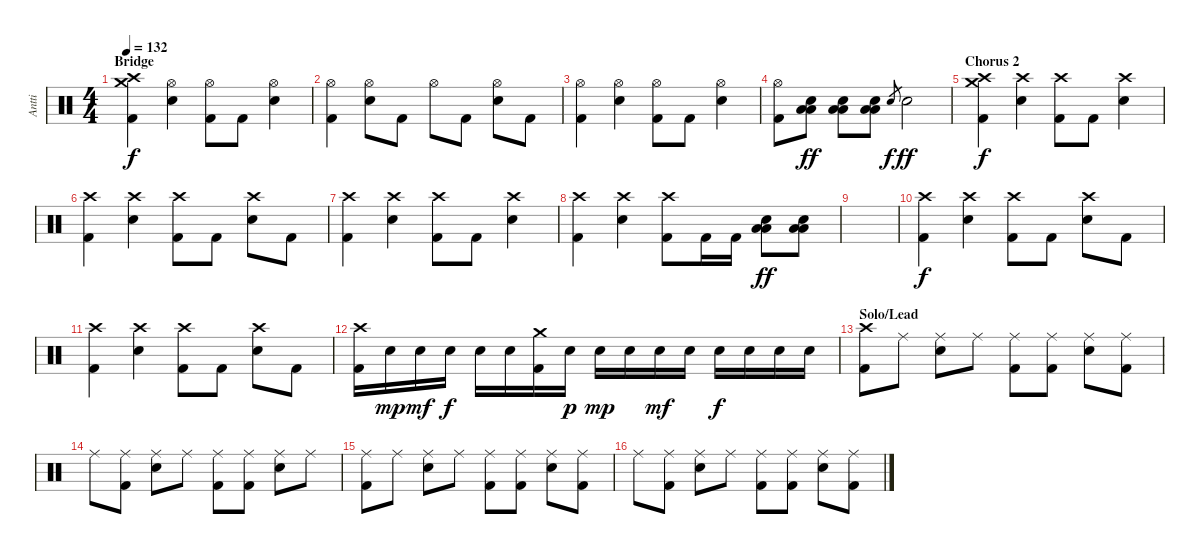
\track ("Antti" "Antti") {instrument percussion}
\staff {score}
\articulation defaults
\ts (4 4)
\section ("" "Bridge")
\tempo 132
\clef neutral
\ks c
("Crash medium (hit)" "Crash high (hit)" "Kick (hit) 2").4{dy f} ("Hi-Hat (open)" "Electric Snare (hit)").4 ("Hi-Hat (open)" "Kick (hit) 2").8 "Kick (hit) 2".8 ("Hi-Hat (open)" "Electric Snare (hit)").4 |
("Hi-Hat (open)" "Kick (hit) 2").4 ("Hi-Hat (open)" "Electric Snare (hit)").8 "Kick (hit) 2".8 "Hi-Hat (open)".8 "Kick (hit) 2".8 ("Hi-Hat (open)" "Electric Snare (hit)").8 "Kick (hit) 2".8 |
("Hi-Hat (open)" "Kick (hit) 2").4 ("Hi-Hat (open)" "Electric Snare (hit)").4 ("Hi-Hat (open)" "Kick (hit) 2").8 "Kick (hit) 2".8 ("Hi-Hat (open)" "Electric Snare (hit)").4 |
("Hi-Hat (open)" "Kick (hit) 2").8 ("Low Tom (hit)" "Low Floor Tom (hit)" "Electric Snare (hit)").8{dy ff} ("Low Tom (hit)" "Low Floor Tom (hit)" "Electric Snare (hit)").8 ("Low Tom (hit)" "Low Floor Tom (hit)" "Electric Snare (hit)").8 "Electric Snare (hit)"{h}.8{gr dy f} "Electric Snare (hit)".2{dy ff} |
\section ("" "Chorus 2")
("Crash medium (hit)" "Crash high (hit)" "Kick (hit) 2").4{dy f} ("Crash high (hit)" "Electric Snare (hit)").4 ("Crash high (hit)" "Kick (hit) 2").8 "Kick (hit) 2".8 ("Crash high (hit)" "Electric Snare (hit)").4 |
("Crash high (hit)" "Kick (hit) 2").4 ("Crash high (hit)" "Electric Snare (hit)").4 ("Crash high (hit)" "Kick (hit) 2").8 "Kick (hit) 2".8 ("Crash high (hit)" "Electric Snare (hit)").8 "Kick (hit) 2".8 |
("Crash high (hit)" "Kick (hit) 2").4 ("Crash high (hit)" "Electric Snare (hit)").4 ("Crash high (hit)" "Kick (hit) 2").8 "Kick (hit) 2".8 ("Crash high (hit)" "Electric Snare (hit)").4 |
("Crash high (hit)" "Kick (hit) 2").4 ("Crash high (hit)" "Electric Snare (hit)").4 ("Crash high (hit)" "Kick (hit) 2").8 "Kick (hit) 2".16 "Kick (hit) 2".16 ("Low Tom (hit)" "Low Floor Tom (hit)" "Electric Snare (hit)").8{dy ff} ("Low Tom (hit)" "Low Floor Tom (hit)" "Electric Snare (hit)").8 |
|
("Crash high (hit)" "Kick (hit) 2").4{dy f} ("Crash high (hit)" "Electric Snare (hit)").4 ("Crash high (hit)" "Kick (hit) 2").8 "Kick (hit) 2".8 ("Crash high (hit)" "Electric Snare (hit)").8 "Kick (hit) 2".8 |
("Crash high (hit)" "Kick (hit) 2").4 ("Crash high (hit)" "Electric Snare (hit)").4 ("Crash high (hit)" "Kick (hit) 2").8 "Kick (hit) 2".8 ("Crash high (hit)" "Electric Snare (hit)").8 "Kick (hit) 2".8 |
("Crash high (hit)" "Kick (hit) 2").16 "Electric Snare (hit)".16{dy mp} "Electric Snare (hit)".16{dy mf} "Electric Snare (hit)".16{dy f} "Electric Snare (hit)".16 "Electric Snare (hit)".16 ("Crash medium (hit)" "Kick (hit) 2").16 "Electric Snare (hit)".16{dy p} "Electric Snare (hit)".16{dy mp} "Electric Snare (hit)".16 "Electric Snare (hit)".16{dy mf} "Electric Snare (hit)".16 "Electric Snare (hit)".16{dy f} "Electric Snare (hit)".16 "Electric Snare (hit)".16 "Electric Snare (hit)".16 |
\section ("" "Solo/Lead")
("Crash high (hit)" "Kick (hit) 2").8 "Ride (middle)".8 ("Ride (middle)" "Electric Snare (hit)").8 "Ride (middle)".8 ("Ride (middle)" "Kick (hit) 2").8 ("Ride (middle)" "Kick (hit) 2").8 ("Ride (middle)" "Electric Snare (hit)").8 ("Ride (middle)" "Kick (hit) 2").8 |
"Ride (middle)".8 ("Ride (middle)" "Kick (hit) 2").8 ("Ride (middle)" "Electric Snare (hit)").8 "Ride (middle)".8 ("Ride (middle)" "Kick (hit) 2").8 ("Ride (middle)" "Kick (hit) 2").8 ("Ride (middle)" "Electric Snare (hit)").8 "Ride (middle)".8 |
("Ride (middle)" "Kick (hit) 2").8 "Ride (middle)".8 ("Ride (middle)" "Electric Snare (hit)").8 "Ride (middle)".8 ("Ride (middle)" "Kick (hit) 2").8 ("Ride (middle)" "Kick (hit) 2").8 ("Ride (middle)" "Electric Snare (hit)").8 ("Ride (middle)" "Kick (hit) 2").8 |
"Ride (middle)".8 ("Ride (middle)" "Kick (hit) 2").8 ("Ride (middle)" "Electric Snare (hit)").8 "Ride (middle)".8 ("Ride (middle)" "Kick (hit) 2").8 ("Ride (middle)" "Kick (hit) 2").8 ("Ride (middle)" "Electric Snare (hit)").8 ("Ride (middle)" "Kick (hit) 2").8
